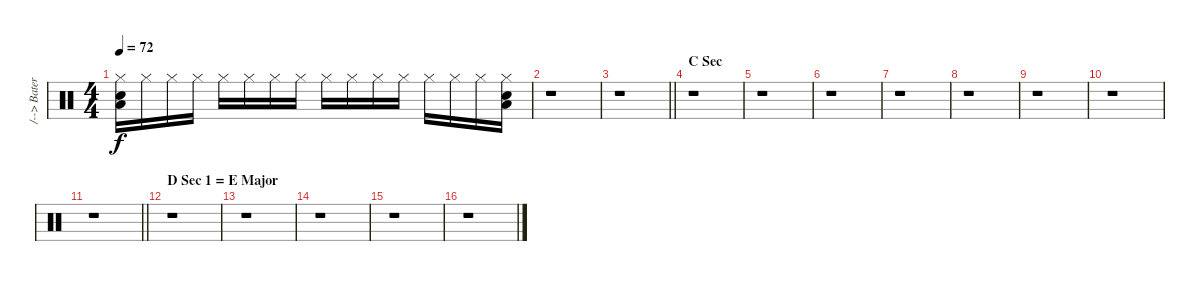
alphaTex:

\track ("/--> Bateria <---/" "/--> Bater") {instrument percussion}
\staff {score}
\articulation defaults
\ts (4 4)
\tempo 72
\clef neutral
\ks c
("Hi-Hat (closed)" "Snare (hit) 2" "Low Tom (hit)").16{dy f} "Hi-Hat (closed)".16 "Hi-Hat (closed)".16 "Hi-Hat (closed)".16 "Hi-Hat (closed)".16 "Hi-Hat (closed)".16 "Hi-Hat (closed)".16 "Hi-Hat (closed)".16 "Hi-Hat (closed)".16 "Hi-Hat (closed)".16 "Hi-Hat (closed)".16 "Hi-Hat (closed)".16 "Hi-Hat (closed)".16 "Hi-Hat (closed)".16 "Hi-Hat (closed)".16 ("Hi-Hat (closed)" "Snare (hit) 2" "Low Tom (hit)").16 |
r.1 |
\barLineRight lightlight
r.1 |
\section ("" "C Sec")
r.1 |
r.1 |
r.1 |
r.1 |
r.1 |
r.1 |
r.1 |
\barLineRight lightlight
r.1 |
\section ("" "D Sec 1 = E Major")
r.1 |
r.1 |
r.1 |
r.1 |
r.1
